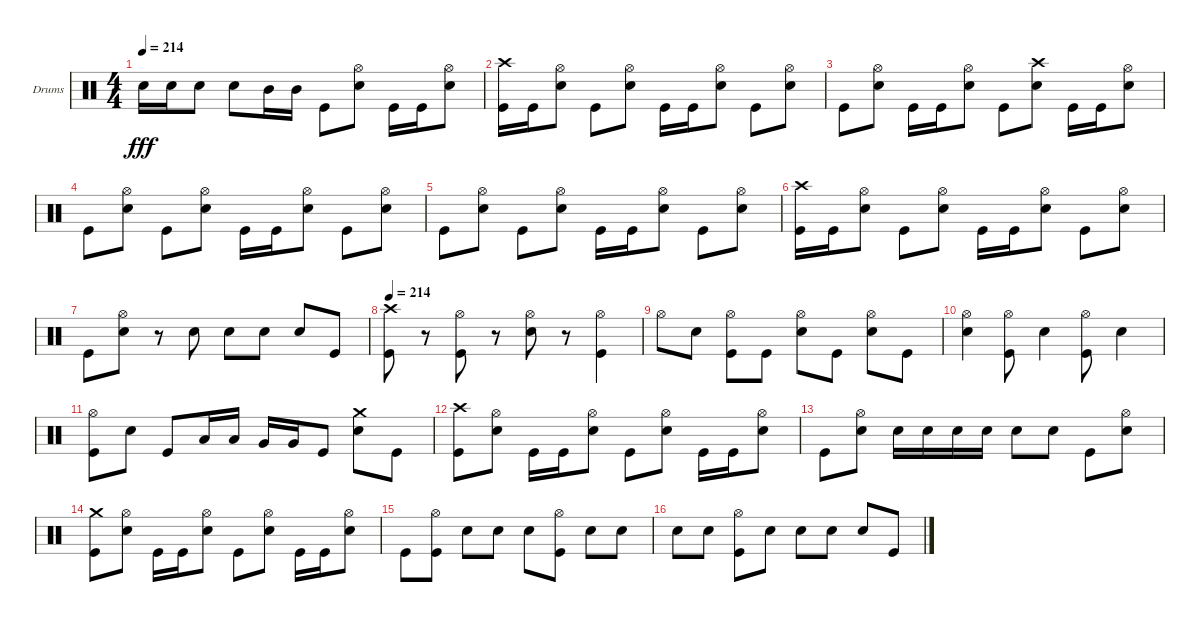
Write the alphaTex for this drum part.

\bracketExtendMode groupsimilarinstruments
\firstSystemTrackNameOrientation horizontal
\otherSystemsTrackNameOrientation horizontal
\track ("Drumkit" "Drums") {instrument percussion}
\staff {score}
\articulation defaults
\ts (4 4)
\beaming (8 2 2 2 2)
\tempo 214
\clef neutral
\ks c "Snare (hit) 2".16{dy fff} "Snare (hit) 2".16 "Snare (hit) 2".8 "Snare (hit) 2".8 "Mid Tom (hit)".16 "Mid Tom (hit)".16 "Kick (hit)".8
("Hi-Hat (open)" "Snare (hit) 2").8 "Kick (hit)".16 "Kick (hit)".16 ("Hi-Hat (open)" "Snare (hit) 2").8 |
("Crash high (hit)" "Kick (hit)").16 "Kick (hit)".16 ("Hi-Hat (open)" "Snare (hit) 2").8 "Kick (hit)".8 ("Hi-Hat (open)" "Snare (hit) 2").8 "Kick (hit)".16 "Kick (hit)".16 ("Hi-Hat (open)" "Snare (hit) 2").8 "Kick (hit)".8 ("Hi-Hat (open)" "Snare (hit) 2").8 |
"Kick (hit)".8 ("Hi-Hat (open)" "Snare (hit) 2").8 "Kick (hit)".16 "Kick (hit)".16 ("Hi-Hat (open)" "Snare (hit) 2").8 "Kick (hit)".8 ("Crash high (hit)" "Snare (hit) 2").8 "Kick (hit)".16 "Kick (hit)".16 ("Hi-Hat (open)" "Snare (hit) 2").8 |
"Kick (hit)".8 ("Hi-Hat (open)" "Snare (hit) 2").8 "Kick (hit)".8 ("Hi-Hat (open)" "Snare (hit) 2").8 "Kick (hit)".16 "Kick (hit)".16 ("Hi-Hat (open)" "Snare (hit) 2").8 "Kick (hit)".8 ("Hi-Hat (open)" "Snare (hit) 2").8 |
"Kick (hit)".8 ("Hi-Hat (open)" "Snare (hit) 2").8 "Kick (hit)".8 ("Hi-Hat (open)" "Snare (hit) 2").8 "Kick (hit)".16 "Kick (hit)".16 ("Hi-Hat (open)" "Snare (hit) 2").8 "Kick (hit)".8 ("Hi-Hat (open)" "Snare (hit) 2").8 |
("Crash high (hit)" "Kick (hit)").16 "Kick (hit)".16 ("Hi-Hat (open)" "Snare (hit) 2").8 "Kick (hit)".8 ("Hi-Hat (open)" "Snare (hit) 2").8 "Kick (hit)".16 "Kick (hit)".16 ("Hi-Hat (open)" "Snare (hit) 2").8 "Kick (hit)".8 ("Hi-Hat (open)" "Snare (hit) 2").8 |
"Kick (hit)".8 ("Hi-Hat (open)" "Snare (hit) 2").8 r.8 "Snare (hit) 2".8 "Snare (hit) 2".8 "Snare (hit) 2".8 "Snare (hit) 2".8 "Kick (hit)".8 |
\tempo 214
("Crash high (hit)" "Kick (hit)").8 r.8 ("Hi-Hat (open)" "Kick (hit)").8 r.8 ("Hi-Hat (open)" "Snare (hit) 2").8 r.8 ("Hi-Hat (open)" "Kick (hit)").4 |
"Hi-Hat (open)".8 "Snare (hit) 2".8 ("Hi-Hat (open)" "Kick (hit)").8 "Kick (hit)".8 ("Hi-Hat (open)" "Snare (hit) 2").8 "Kick (hit)".8 ("Hi-Hat (open)" "Snare (hit) 2").8 "Kick (hit)".8 |
("Hi-Hat (open)" "Snare (hit) 2").4 ("Hi-Hat (open)" "Kick (hit)").8 "Snare (hit) 2".4 ("Hi-Hat (open)" "Kick (hit)").8 "Snare (hit) 2".4 |
("Hi-Hat (open)" "Kick (hit)").8 "Snare (hit) 2".8 "Kick (hit)".8 "Low Tom (hit)".16 "Low Tom (hit)".16 "Very Low Tom (hit)".16 "Very Low Tom (hit)".16 "Kick (hit)".8 ("Crash medium (hit)" "Snare (hit) 2").8 "Kick (hit)".8 |
("Crash high (hit)" "Kick (hit)").8 ("Hi-Hat (open)" "Snare (hit) 2").8 "Kick (hit)".16 "Kick (hit)".16 ("Hi-Hat (open)" "Snare (hit) 2").8 "Kick (hit)".8 ("Hi-Hat (open)" "Snare (hit) 2").8 "Kick (hit)".16 "Kick (hit)".16 ("Hi-Hat (open)" "Snare (hit) 2").8 |
"Kick (hit)".8 ("Hi-Hat (open)" "Snare (hit) 2").8 "Snare (hit) 2".16 "Snare (hit) 2".16 "Snare (hit) 2".16 "Snare (hit) 2".16 "Snare (hit) 2".8 "Snare (hit) 2".8 "Kick (hit)".8 ("Hi-Hat (open)" "Snare (hit) 2").8 |
("Crash medium (hit)" "Kick (hit)").8 ("Hi-Hat (open)" "Snare (hit) 2").8 "Kick (hit)".16 "Kick (hit)".16 ("Hi-Hat (open)" "Snare (hit) 2").8 "Kick (hit)".8 ("Hi-Hat (open)" "Snare (hit) 2").8 "Kick (hit)".16 "Kick (hit)".16 ("Hi-Hat (open)" "Snare (hit) 2").8 |
"Kick (hit)".8 ("Hi-Hat (open)" "Kick (hit)").8 "Snare (hit) 2".8 "Snare (hit) 2".8 "Snare (hit) 2".8 ("Hi-Hat (open)" "Kick (hit)").8 "Snare (hit) 2".8 "Snare (hit) 2".8 |
"Snare (hit) 2".8 "Snare (hit) 2".8 ("Hi-Hat (open)" "Kick (hit)").8 "Snare (hit) 2".8 "Snare (hit) 2".8 "Snare (hit) 2".8 "Snare (hit) 2".8 "Kick (hit)".8
